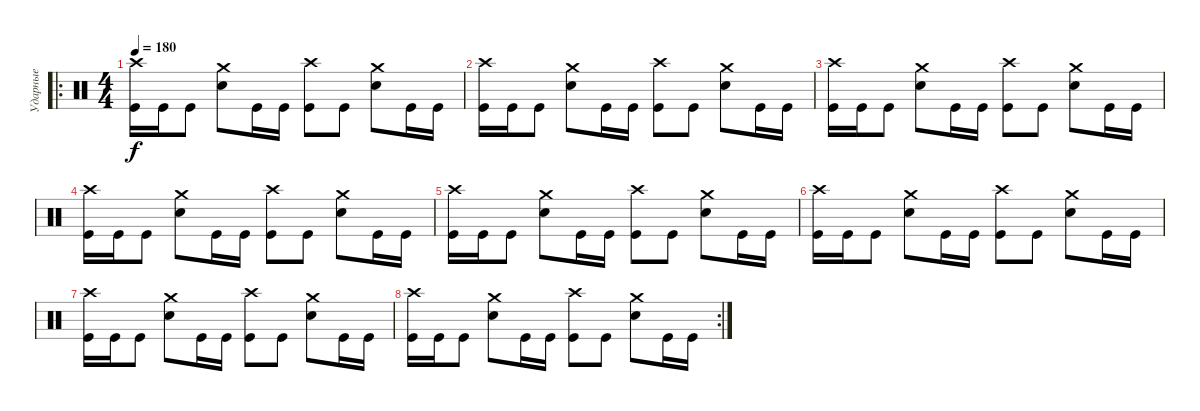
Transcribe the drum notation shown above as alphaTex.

\track ("Ударные" "Ударные") {instrument percussion}
\staff {score}
\articulation defaults
\ro
\ts (4 4)
\tempo 180
\clef neutral
\ks c
("Crash high (hit)" "Kick (hit)").16{dy f} "Kick (hit)".16 "Kick (hit)".8 ("Crash medium (hit)" "Snare (hit) 2").8 "Kick (hit)".16 "Kick (hit)".16 ("Crash high (hit)" "Kick (hit)").8 "Kick (hit)".8 ("Crash medium (hit)" "Snare (hit) 2").8 "Kick (hit)".16 "Kick (hit)".16 |
("Crash high (hit)" "Kick (hit)").16 "Kick (hit)".16 "Kick (hit)".8 ("Crash medium (hit)" "Snare (hit) 2").8 "Kick (hit)".16 "Kick (hit)".16 ("Crash high (hit)" "Kick (hit)").8 "Kick (hit)".8 ("Crash medium (hit)" "Snare (hit) 2").8 "Kick (hit)".16 "Kick (hit)".16 |
("Crash high (hit)" "Kick (hit)").16 "Kick (hit)".16 "Kick (hit)".8 ("Crash medium (hit)" "Snare (hit) 2").8 "Kick (hit)".16 "Kick (hit)".16 ("Crash high (hit)" "Kick (hit)").8 "Kick (hit)".8 ("Crash medium (hit)" "Snare (hit) 2").8 "Kick (hit)".16 "Kick (hit)".16 |
("Crash high (hit)" "Kick (hit)").16 "Kick (hit)".16 "Kick (hit)".8 ("Crash medium (hit)" "Snare (hit) 2").8 "Kick (hit)".16 "Kick (hit)".16 ("Crash high (hit)" "Kick (hit)").8 "Kick (hit)".8 ("Crash medium (hit)" "Snare (hit) 2").8 "Kick (hit)".16 "Kick (hit)".16 |
("Crash high (hit)" "Kick (hit)").16 "Kick (hit)".16 "Kick (hit)".8 ("Crash medium (hit)" "Snare (hit) 2").8 "Kick (hit)".16 "Kick (hit)".16 ("Crash high (hit)" "Kick (hit)").8 "Kick (hit)".8 ("Crash medium (hit)" "Snare (hit) 2").8 "Kick (hit)".16 "Kick (hit)".16 |
("Crash high (hit)" "Kick (hit)").16 "Kick (hit)".16 "Kick (hit)".8 ("Crash medium (hit)" "Snare (hit) 2").8 "Kick (hit)".16 "Kick (hit)".16 ("Crash high (hit)" "Kick (hit)").8 "Kick (hit)".8 ("Crash medium (hit)" "Snare (hit) 2").8 "Kick (hit)".16 "Kick (hit)".16 |
("Crash high (hit)" "Kick (hit)").16 "Kick (hit)".16 "Kick (hit)".8 ("Crash medium (hit)" "Snare (hit) 2").8 "Kick (hit)".16 "Kick (hit)".16 ("Crash high (hit)" "Kick (hit)").8 "Kick (hit)".8 ("Crash medium (hit)" "Snare (hit) 2").8 "Kick (hit)".16 "Kick (hit)".16 |
\rc 2
("Crash high (hit)" "Kick (hit)").16 "Kick (hit)".16 "Kick (hit)".8 ("Crash medium (hit)" "Snare (hit) 2").8 "Kick (hit)".16 "Kick (hit)".16 ("Crash high (hit)" "Kick (hit)").8 "Kick (hit)".8 ("Crash medium (hit)" "Snare (hit) 2").8 "Kick (hit)".16 "Kick (hit)".16
